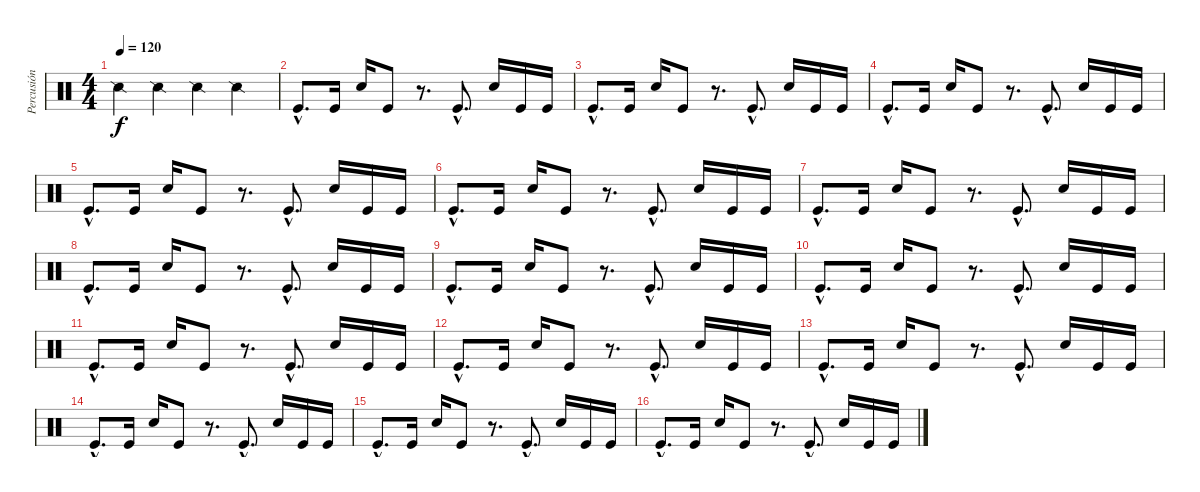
\track ("Percusión" "Percusión") {instrument percussion}
\staff {score}
\articulation defaults
\ts (4 4)
\tempo 120
\clef neutral
\ks c "Snare (side stick) 2".4{dy f} "Snare (side stick) 2".4 "Snare (side stick) 2".4 "Snare (side stick) 2".4
|
"Kick (hit)"{hac}.8{d} "Kick (hit)".16 "Snare (hit) 2".16 "Kick (hit)".8 r.8{d} "Kick (hit)"{hac}.8{d} "Snare (hit) 2".16 "Kick (hit)".16 "Kick (hit)".16 |
"Kick (hit)"{hac}.8{d} "Kick (hit)".16 "Snare (hit) 2".16 "Kick (hit)".8 r.8{d} "Kick (hit)"{hac}.8{d} "Snare (hit) 2".16 "Kick (hit)".16 "Kick (hit)".16 |
"Kick (hit)"{hac}.8{d} "Kick (hit)".16 "Snare (hit) 2".16 "Kick (hit)".8 r.8{d} "Kick (hit)"{hac}.8{d} "Snare (hit) 2".16 "Kick (hit)".16 "Kick (hit)".16 |
"Kick (hit)"{hac}.8{d} "Kick (hit)".16 "Snare (hit) 2".16 "Kick (hit)".8 r.8{d} "Kick (hit)"{hac}.8{d} "Snare (hit) 2".16 "Kick (hit)".16 "Kick (hit)".16 |
"Kick (hit)"{hac}.8{d} "Kick (hit)".16 "Snare (hit) 2".16 "Kick (hit)".8 r.8{d} "Kick (hit)"{hac}.8{d} "Snare (hit) 2".16 "Kick (hit)".16 "Kick (hit)".16 |
"Kick (hit)"{hac}.8{d} "Kick (hit)".16 "Snare (hit) 2".16 "Kick (hit)".8 r.8{d} "Kick (hit)"{hac}.8{d} "Snare (hit) 2".16 "Kick (hit)".16 "Kick (hit)".16 |
"Kick (hit)"{hac}.8{d} "Kick (hit)".16 "Snare (hit) 2".16 "Kick (hit)".8 r.8{d} "Kick (hit)"{hac}.8{d} "Snare (hit) 2".16 "Kick (hit)".16 "Kick (hit)".16 |
"Kick (hit)"{hac}.8{d} "Kick (hit)".16 "Snare (hit) 2".16 "Kick (hit)".8 r.8{d} "Kick (hit)"{hac}.8{d} "Snare (hit) 2".16 "Kick (hit)".16 "Kick (hit)".16 |
"Kick (hit)"{hac}.8{d} "Kick (hit)".16 "Snare (hit) 2".16 "Kick (hit)".8 r.8{d} "Kick (hit)"{hac}.8{d} "Snare (hit) 2".16 "Kick (hit)".16 "Kick (hit)".16 |
"Kick (hit)"{hac}.8{d} "Kick (hit)".16 "Snare (hit) 2".16 "Kick (hit)".8 r.8{d} "Kick (hit)"{hac}.8{d} "Snare (hit) 2".16 "Kick (hit)".16 "Kick (hit)".16 |
"Kick (hit)"{hac}.8{d} "Kick (hit)".16 "Snare (hit) 2".16 "Kick (hit)".8 r.8{d} "Kick (hit)"{hac}.8{d} "Snare (hit) 2".16 "Kick (hit)".16 "Kick (hit)".16 |
"Kick (hit)"{hac}.8{d} "Kick (hit)".16 "Snare (hit) 2".16 "Kick (hit)".8 r.8{d} "Kick (hit)"{hac}.8{d} "Snare (hit) 2".16 "Kick (hit)".16 "Kick (hit)".16 |
"Kick (hit)"{hac}.8{d} "Kick (hit)".16 "Snare (hit) 2".16 "Kick (hit)".8 r.8{d} "Kick (hit)"{hac}.8{d} "Snare (hit) 2".16 "Kick (hit)".16 "Kick (hit)".16 |
"Kick (hit)"{hac}.8{d} "Kick (hit)".16 "Snare (hit) 2".16 "Kick (hit)".8 r.8{d} "Kick (hit)"{hac}.8{d} "Snare (hit) 2".16 "Kick (hit)".16 "Kick (hit)".16 |
"Kick (hit)"{hac}.8{d} "Kick (hit)".16 "Snare (hit) 2".16 "Kick (hit)".8 r.8{d} "Kick (hit)"{hac}.8{d} "Snare (hit) 2".16 "Kick (hit)".16 "Kick (hit)".16
